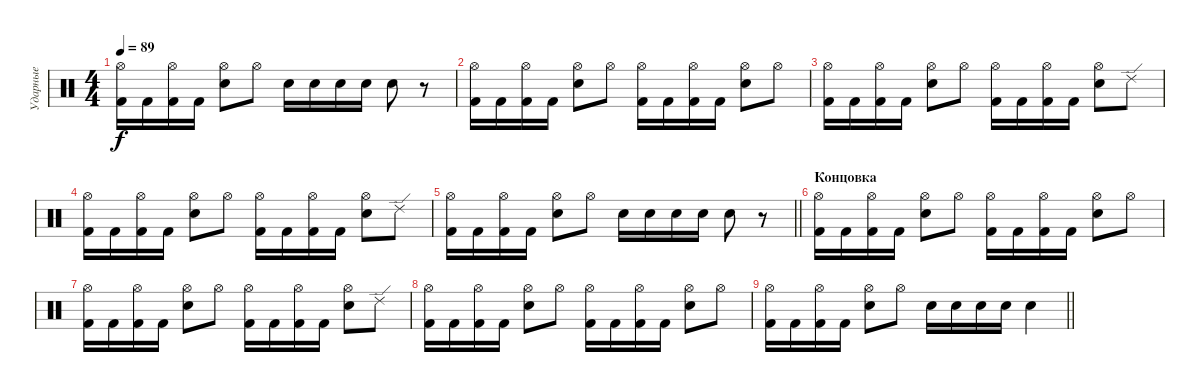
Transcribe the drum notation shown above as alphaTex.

\track ("Ударные" "Ударные") {instrument percussion}
\staff {score}
\articulation defaults
\ts (4 4)
\tempo 89
\clef neutral
\ks c
("Kick (hit) 2" "Hi-Hat (open)").16{dy f} "Kick (hit) 2".16 ("Kick (hit) 2" "Hi-Hat (open)").16 "Kick (hit) 2".16 ("Electric Snare (hit)" "Hi-Hat (open)").8 "Hi-Hat (open)".8 "Electric Snare (hit)".16 "Electric Snare (hit)".16 "Electric Snare (hit)".16 "Electric Snare (hit)".16 "Electric Snare (hit)".8 r.8 |
("Kick (hit) 2" "Hi-Hat (open)").16 "Kick (hit) 2".16 ("Kick (hit) 2" "Hi-Hat (open)").16 "Kick (hit) 2".16 ("Electric Snare (hit)" "Hi-Hat (open)").8 "Hi-Hat (open)".8 ("Kick (hit) 2" "Hi-Hat (open)").16 "Kick (hit) 2".16 ("Kick (hit) 2" "Hi-Hat (open)").16 "Kick (hit) 2".16 ("Electric Snare (hit)" "Hi-Hat (open)").8 "Hi-Hat (open)".8 |
("Kick (hit) 2" "Hi-Hat (open)").16 "Kick (hit) 2".16 ("Kick (hit) 2" "Hi-Hat (open)").16 "Kick (hit) 2".16 ("Electric Snare (hit)" "Hi-Hat (open)").8 "Hi-Hat (open)".8 ("Kick (hit) 2" "Hi-Hat (open)").16 "Kick (hit) 2".16 ("Kick (hit) 2" "Hi-Hat (open)").16 "Kick (hit) 2".16 ("Electric Snare (hit)" "Hi-Hat (open)").8 "Ride (edge) 2".8 |
("Kick (hit) 2" "Hi-Hat (open)").16 "Kick (hit) 2".16 ("Kick (hit) 2" "Hi-Hat (open)").16 "Kick (hit) 2".16 ("Electric Snare (hit)" "Hi-Hat (open)").8 "Hi-Hat (open)".8 ("Kick (hit) 2" "Hi-Hat (open)").16 "Kick (hit) 2".16 ("Kick (hit) 2" "Hi-Hat (open)").16 "Kick (hit) 2".16 ("Electric Snare (hit)" "Hi-Hat (open)").8 "Ride (edge) 2".8 |
\barLineRight lightlight
("Kick (hit) 2" "Hi-Hat (open)").16 "Kick (hit) 2".16 ("Kick (hit) 2" "Hi-Hat (open)").16 "Kick (hit) 2".16 ("Electric Snare (hit)" "Hi-Hat (open)").8 "Hi-Hat (open)".8 "Electric Snare (hit)".16 "Electric Snare (hit)".16 "Electric Snare (hit)".16 "Electric Snare (hit)".16 "Electric Snare (hit)".8 r.8 |
\section ("" "Концовка")
("Kick (hit) 2" "Hi-Hat (open)").16 "Kick (hit) 2".16 ("Kick (hit) 2" "Hi-Hat (open)").16 "Kick (hit) 2".16 ("Electric Snare (hit)" "Hi-Hat (open)").8 "Hi-Hat (open)".8 ("Kick (hit) 2" "Hi-Hat (open)").16 "Kick (hit) 2".16 ("Kick (hit) 2" "Hi-Hat (open)").16 "Kick (hit) 2".16 ("Electric Snare (hit)" "Hi-Hat (open)").8 "Hi-Hat (open)".8 |
("Kick (hit) 2" "Hi-Hat (open)").16 "Kick (hit) 2".16 ("Kick (hit) 2" "Hi-Hat (open)").16 "Kick (hit) 2".16 ("Electric Snare (hit)" "Hi-Hat (open)").8 "Hi-Hat (open)".8 ("Kick (hit) 2" "Hi-Hat (open)").16 "Kick (hit) 2".16 ("Kick (hit) 2" "Hi-Hat (open)").16 "Kick (hit) 2".16 ("Electric Snare (hit)" "Hi-Hat (open)").8 "Ride (edge) 2".8 |
("Kick (hit) 2" "Hi-Hat (open)").16 "Kick (hit) 2".16 ("Kick (hit) 2" "Hi-Hat (open)").16 "Kick (hit) 2".16 ("Electric Snare (hit)" "Hi-Hat (open)").8 "Hi-Hat (open)".8 ("Kick (hit) 2" "Hi-Hat (open)").16 "Kick (hit) 2".16 ("Kick (hit) 2" "Hi-Hat (open)").16 "Kick (hit) 2".16 ("Electric Snare (hit)" "Hi-Hat (open)").8 "Hi-Hat (open)".8 |
\barLineRight lightlight
("Kick (hit) 2" "Hi-Hat (open)").16 "Kick (hit) 2".16 ("Kick (hit) 2" "Hi-Hat (open)").16 "Kick (hit) 2".16 ("Electric Snare (hit)" "Hi-Hat (open)").8 "Hi-Hat (open)".8 "Electric Snare (hit)".16 "Electric Snare (hit)".16 "Electric Snare (hit)".16 "Electric Snare (hit)".16 "Electric Snare (hit)".4
